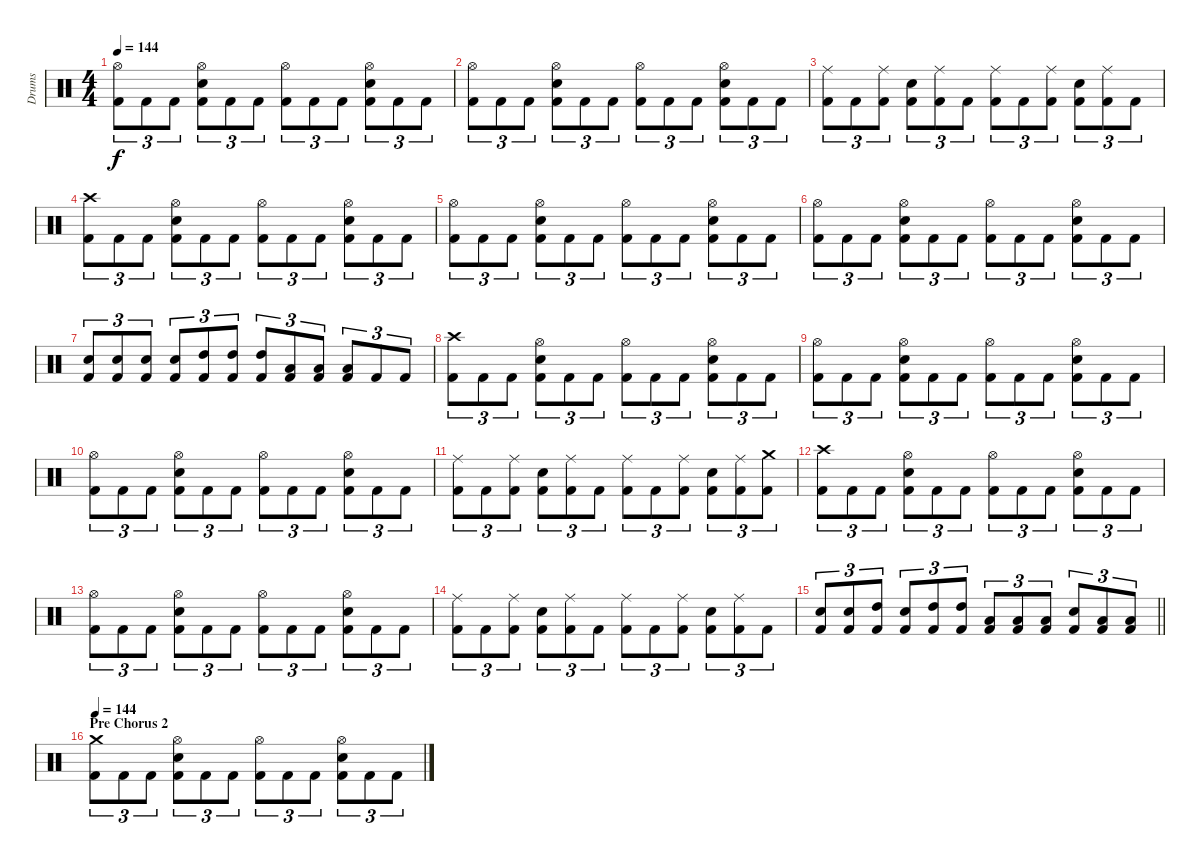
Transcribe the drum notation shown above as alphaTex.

\track ("Drums" "Drums") {instrument percussion}
\staff {score}
\articulation defaults
\ts (4 4)
\tempo 144
\clef neutral
\ks c
("Hi-Hat (open)" "Kick (hit) 2").8{tu (3 2) dy f} "Kick (hit) 2".8{tu (3 2)} "Kick (hit) 2".8{tu (3 2)} ("Hi-Hat (open)" "Snare (hit) 2" "Kick (hit) 2").8{tu (3 2)} "Kick (hit) 2".8{tu (3 2)} "Kick (hit) 2".8{tu (3 2)} ("Hi-Hat (open)" "Kick (hit) 2").8{tu (3 2)} "Kick (hit) 2".8{tu (3 2)} "Kick (hit) 2".8{tu (3 2)} ("Hi-Hat (open)" "Snare (hit) 2" "Kick (hit) 2").8{tu (3 2)} "Kick (hit) 2".8{tu (3 2)} "Kick (hit) 2".8{tu (3 2)} |
("Hi-Hat (open)" "Kick (hit) 2").8{tu (3 2)} "Kick (hit) 2".8{tu (3 2)} "Kick (hit) 2".8{tu (3 2)} ("Hi-Hat (open)" "Snare (hit) 2" "Kick (hit) 2").8{tu (3 2)} "Kick (hit) 2".8{tu (3 2)} "Kick (hit) 2".8{tu (3 2)} ("Hi-Hat (open)" "Kick (hit) 2").8{tu (3 2)} "Kick (hit) 2".8{tu (3 2)} "Kick (hit) 2".8{tu (3 2)} ("Hi-Hat (open)" "Snare (hit) 2" "Kick (hit) 2").8{tu (3 2)} "Kick (hit) 2".8{tu (3 2)} "Kick (hit) 2".8{tu (3 2)} |
("Ride (middle)" "Kick (hit) 2").8{tu (3 2)} "Kick (hit) 2".8{tu (3 2)} ("Ride (middle)" "Kick (hit) 2").8{tu (3 2)} ("Snare (hit) 2" "Kick (hit) 2").8{tu (3 2)} ("Ride (middle)" "Kick (hit) 2").8{tu (3 2)} "Kick (hit) 2".8{tu (3 2)} ("Ride (middle)" "Kick (hit) 2").8{tu (3 2)} "Kick (hit) 2".8{tu (3 2)} ("Ride (middle)" "Kick (hit) 2").8{tu (3 2)} ("Snare (hit) 2" "Kick (hit) 2").8{tu (3 2)} ("Ride (middle)" "Kick (hit) 2").8{tu (3 2)} "Kick (hit) 2".8{tu (3 2)} |
("Crash high (hit)" "Kick (hit) 2").8{tu (3 2)} "Kick (hit) 2".8{tu (3 2)} "Kick (hit) 2".8{tu (3 2)} ("Hi-Hat (open)" "Snare (hit) 2" "Kick (hit) 2").8{tu (3 2)} "Kick (hit) 2".8{tu (3 2)} "Kick (hit) 2".8{tu (3 2)} ("Hi-Hat (open)" "Kick (hit) 2").8{tu (3 2)} "Kick (hit) 2".8{tu (3 2)} "Kick (hit) 2".8{tu (3 2)} ("Hi-Hat (open)" "Snare (hit) 2" "Kick (hit) 2").8{tu (3 2)} "Kick (hit) 2".8{tu (3 2)} "Kick (hit) 2".8{tu (3 2)} |
("Hi-Hat (open)" "Kick (hit) 2").8{tu (3 2)} "Kick (hit) 2".8{tu (3 2)} "Kick (hit) 2".8{tu (3 2)} ("Hi-Hat (open)" "Snare (hit) 2" "Kick (hit) 2").8{tu (3 2)} "Kick (hit) 2".8{tu (3 2)} "Kick (hit) 2".8{tu (3 2)} ("Hi-Hat (open)" "Kick (hit) 2").8{tu (3 2)} "Kick (hit) 2".8{tu (3 2)} "Kick (hit) 2".8{tu (3 2)} ("Hi-Hat (open)" "Snare (hit) 2" "Kick (hit) 2").8{tu (3 2)} "Kick (hit) 2".8{tu (3 2)} "Kick (hit) 2".8{tu (3 2)} |
("Hi-Hat (open)" "Kick (hit) 2").8{tu (3 2)} "Kick (hit) 2".8{tu (3 2)} "Kick (hit) 2".8{tu (3 2)} ("Hi-Hat (open)" "Snare (hit) 2" "Kick (hit) 2").8{tu (3 2)} "Kick (hit) 2".8{tu (3 2)} "Kick (hit) 2".8{tu (3 2)} ("Hi-Hat (open)" "Kick (hit) 2").8{tu (3 2)} "Kick (hit) 2".8{tu (3 2)} "Kick (hit) 2".8{tu (3 2)} ("Hi-Hat (open)" "Snare (hit) 2" "Kick (hit) 2").8{tu (3 2)} "Kick (hit) 2".8{tu (3 2)} "Kick (hit) 2".8{tu (3 2)} |
("Snare (hit) 2" "Kick (hit) 2").8{tu (3 2)} ("Snare (hit) 2" "Kick (hit) 2").8{tu (3 2)} ("Snare (hit) 2" "Kick (hit) 2").8{tu (3 2)} ("Snare (hit) 2" "Kick (hit) 2").8{tu (3 2)} ("High Tom (hit)" "Kick (hit) 2").8{tu (3 2)} ("High Tom (hit)" "Kick (hit) 2").8{tu (3 2)} ("High Tom (hit)" "Kick (hit) 2").8{tu (3 2)} ("Low Tom (hit)" "Kick (hit) 2").8{tu (3 2)} ("Low Tom (hit)" "Kick (hit) 2").8{tu (3 2)} ("Low Tom (hit)" "Kick (hit) 2").8{tu (3 2)} "Kick (hit) 2".8{tu (3 2)} "Kick (hit) 2".8{tu (3 2)} |
("Crash high (hit)" "Kick (hit) 2").8{tu (3 2)} "Kick (hit) 2".8{tu (3 2)} "Kick (hit) 2".8{tu (3 2)} ("Hi-Hat (open)" "Snare (hit) 2" "Kick (hit) 2").8{tu (3 2)} "Kick (hit) 2".8{tu (3 2)} "Kick (hit) 2".8{tu (3 2)} ("Hi-Hat (open)" "Kick (hit) 2").8{tu (3 2)} "Kick (hit) 2".8{tu (3 2)} "Kick (hit) 2".8{tu (3 2)} ("Hi-Hat (open)" "Snare (hit) 2" "Kick (hit) 2").8{tu (3 2)} "Kick (hit) 2".8{tu (3 2)} "Kick (hit) 2".8{tu (3 2)} |
("Hi-Hat (open)" "Kick (hit) 2").8{tu (3 2)} "Kick (hit) 2".8{tu (3 2)} "Kick (hit) 2".8{tu (3 2)} ("Hi-Hat (open)" "Snare (hit) 2" "Kick (hit) 2").8{tu (3 2)} "Kick (hit) 2".8{tu (3 2)} "Kick (hit) 2".8{tu (3 2)} ("Hi-Hat (open)" "Kick (hit) 2").8{tu (3 2)} "Kick (hit) 2".8{tu (3 2)} "Kick (hit) 2".8{tu (3 2)} ("Hi-Hat (open)" "Snare (hit) 2" "Kick (hit) 2").8{tu (3 2)} "Kick (hit) 2".8{tu (3 2)} "Kick (hit) 2".8{tu (3 2)} |
("Hi-Hat (open)" "Kick (hit) 2").8{tu (3 2)} "Kick (hit) 2".8{tu (3 2)} "Kick (hit) 2".8{tu (3 2)} ("Hi-Hat (open)" "Snare (hit) 2" "Kick (hit) 2").8{tu (3 2)} "Kick (hit) 2".8{tu (3 2)} "Kick (hit) 2".8{tu (3 2)} ("Hi-Hat (open)" "Kick (hit) 2").8{tu (3 2)} "Kick (hit) 2".8{tu (3 2)} "Kick (hit) 2".8{tu (3 2)} ("Hi-Hat (open)" "Snare (hit) 2" "Kick (hit) 2").8{tu (3 2)} "Kick (hit) 2".8{tu (3 2)} "Kick (hit) 2".8{tu (3 2)} |
("Ride (middle)" "Kick (hit) 2").8{tu (3 2)} "Kick (hit) 2".8{tu (3 2)} ("Ride (middle)" "Kick (hit) 2").8{tu (3 2)} ("Snare (hit) 2" "Kick (hit) 2").8{tu (3 2)} ("Ride (middle)" "Kick (hit) 2").8{tu (3 2)} "Kick (hit) 2".8{tu (3 2)} ("Ride (middle)" "Kick (hit) 2").8{tu (3 2)} "Kick (hit) 2".8{tu (3 2)} ("Ride (middle)" "Kick (hit) 2").8{tu (3 2)} ("Snare (hit) 2" "Kick (hit) 2").8{tu (3 2)} ("Ride (middle)" "Kick (hit) 2").8{tu (3 2)} ("Crash medium (hit)" "Kick (hit) 2").8{tu (3 2)} |
("Crash high (hit)" "Kick (hit) 2").8{tu (3 2)} "Kick (hit) 2".8{tu (3 2)} "Kick (hit) 2".8{tu (3 2)} ("Hi-Hat (open)" "Snare (hit) 2" "Kick (hit) 2").8{tu (3 2)} "Kick (hit) 2".8{tu (3 2)} "Kick (hit) 2".8{tu (3 2)} ("Hi-Hat (open)" "Kick (hit) 2").8{tu (3 2)} "Kick (hit) 2".8{tu (3 2)} "Kick (hit) 2".8{tu (3 2)} ("Hi-Hat (open)" "Snare (hit) 2" "Kick (hit) 2").8{tu (3 2)} "Kick (hit) 2".8{tu (3 2)} "Kick (hit) 2".8{tu (3 2)} |
("Hi-Hat (open)" "Kick (hit) 2").8{tu (3 2)} "Kick (hit) 2".8{tu (3 2)} "Kick (hit) 2".8{tu (3 2)} ("Hi-Hat (open)" "Snare (hit) 2" "Kick (hit) 2").8{tu (3 2)} "Kick (hit) 2".8{tu (3 2)} "Kick (hit) 2".8{tu (3 2)} ("Hi-Hat (open)" "Kick (hit) 2").8{tu (3 2)} "Kick (hit) 2".8{tu (3 2)} "Kick (hit) 2".8{tu (3 2)} ("Hi-Hat (open)" "Snare (hit) 2" "Kick (hit) 2").8{tu (3 2)} "Kick (hit) 2".8{tu (3 2)} "Kick (hit) 2".8{tu (3 2)} |
("Ride (middle)" "Kick (hit) 2").8{tu (3 2)} "Kick (hit) 2".8{tu (3 2)} ("Ride (middle)" "Kick (hit) 2").8{tu (3 2)} ("Snare (hit) 2" "Kick (hit) 2").8{tu (3 2)} ("Ride (middle)" "Kick (hit) 2").8{tu (3 2)} "Kick (hit) 2".8{tu (3 2)} ("Ride (middle)" "Kick (hit) 2").8{tu (3 2)} "Kick (hit) 2".8{tu (3 2)} ("Ride (middle)" "Kick (hit) 2").8{tu (3 2)} ("Snare (hit) 2" "Kick (hit) 2").8{tu (3 2)} ("Ride (middle)" "Kick (hit) 2").8{tu (3 2)} "Kick (hit) 2".8{tu (3 2)} |
\barLineRight lightlight
("Snare (hit) 2" "Kick (hit) 2").8{tu (3 2)} ("Snare (hit) 2" "Kick (hit) 2").8{tu (3 2)} ("High Tom (hit)" "Kick (hit) 2").8{tu (3 2)} ("Snare (hit) 2" "Kick (hit) 2").8{tu (3 2)} ("High Tom (hit)" "Kick (hit) 2").8{tu (3 2)} ("High Tom (hit)" "Kick (hit) 2").8{tu (3 2)} ("Low Tom (hit)" "Kick (hit) 2").8{tu (3 2)} ("Low Tom (hit)" "Kick (hit) 2").8{tu (3 2)} ("Low Tom (hit)" "Kick (hit) 2").8{tu (3 2)} ("Snare (hit) 2" "Kick (hit) 2").8{tu (3 2)} ("Low Tom (hit)" "Kick (hit) 2").8{tu (3 2)} ("Low Tom (hit)" "Kick (hit) 2").8{tu (3 2)} |
\section ("" "Pre Chorus 2")
\tempo 144
("Crash medium (hit)" "Kick (hit) 2").8{tu (3 2)} "Kick (hit) 2".8{tu (3 2)} "Kick (hit) 2".8{tu (3 2)} ("Hi-Hat (open)" "Snare (hit) 2" "Kick (hit) 2").8{tu (3 2)} "Kick (hit) 2".8{tu (3 2)} "Kick (hit) 2".8{tu (3 2)} ("Hi-Hat (open)" "Kick (hit) 2").8{tu (3 2)} "Kick (hit) 2".8{tu (3 2)} "Kick (hit) 2".8{tu (3 2)} ("Hi-Hat (open)" "Snare (hit) 2" "Kick (hit) 2").8{tu (3 2)} "Kick (hit) 2".8{tu (3 2)} "Kick (hit) 2".8{tu (3 2)}
